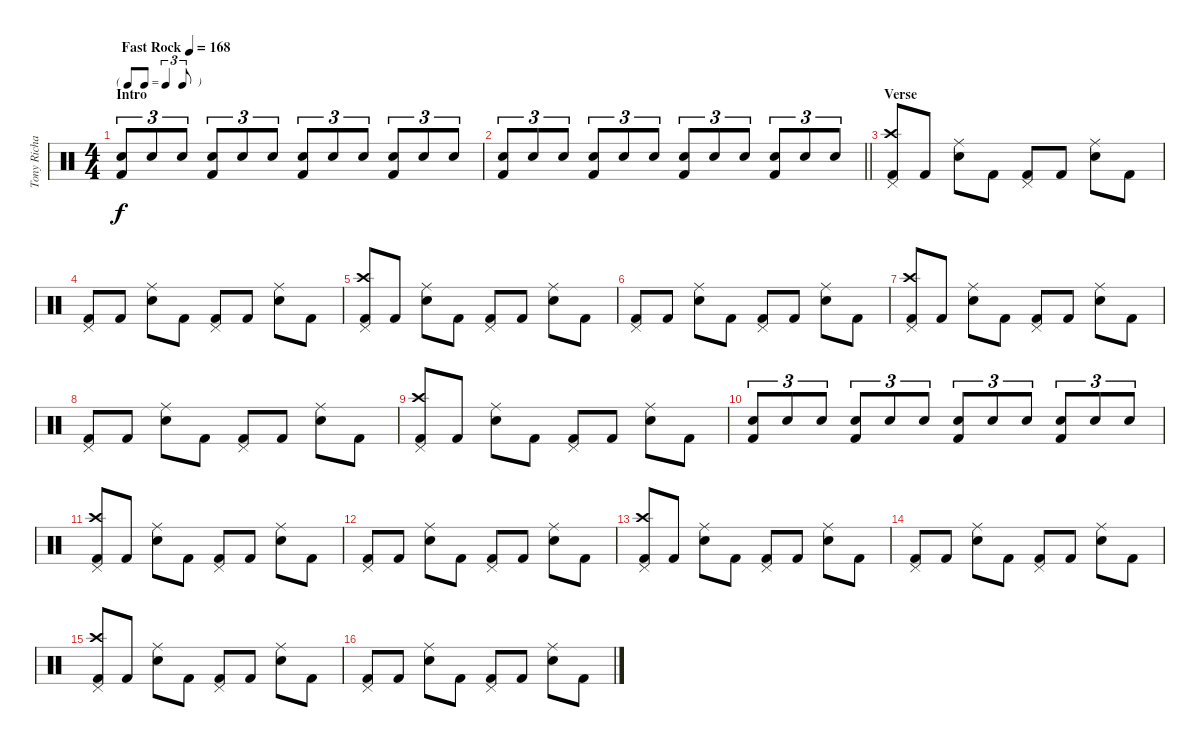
\track ("Tony Richards (drums)" "Tony Richa") {instrument percussion}
\staff {score}
\articulation defaults
\ts (4 4)
\tf triplet8th
\section ("" "Intro")
\tempo (168 "Fast Rock")
\clef neutral
\ks c
("Snare (hit) 2" "Kick (hit) 2").8{tu (3 2) dy f} "Snare (hit) 2".8{tu (3 2)} "Snare (hit) 2".8{tu (3 2)} ("Snare (hit) 2" "Kick (hit) 2").8{tu (3 2)} "Snare (hit) 2".8{tu (3 2)} "Snare (hit) 2".8{tu (3 2)} ("Snare (hit) 2" "Kick (hit) 2").8{tu (3 2)} "Snare (hit) 2".8{tu (3 2)} "Snare (hit) 2".8{tu (3 2)} ("Snare (hit) 2" "Kick (hit) 2").8{tu (3 2)} "Snare (hit) 2".8{tu (3 2)} "Snare (hit) 2".8{tu (3 2)} |
\barLineRight lightlight
("Snare (hit) 2" "Kick (hit) 2").8{tu (3 2)} "Snare (hit) 2".8{tu (3 2)} "Snare (hit) 2".8{tu (3 2)} ("Snare (hit) 2" "Kick (hit) 2").8{tu (3 2)} "Snare (hit) 2".8{tu (3 2)} "Snare (hit) 2".8{tu (3 2)} ("Snare (hit) 2" "Kick (hit) 2").8{tu (3 2)} "Snare (hit) 2".8{tu (3 2)} "Snare (hit) 2".8{tu (3 2)} ("Snare (hit) 2" "Kick (hit) 2").8{tu (3 2)} "Snare (hit) 2".8{tu (3 2)} "Snare (hit) 2".8{tu (3 2)} |
\section ("" "Verse")
("Crash high (hit)" "Pedal Hi-Hat (hit)" "Kick (hit) 2").8 "Kick (hit) 2".8 ("Ride (middle)" "Snare (hit) 2").8 "Kick (hit) 2".8 ("Pedal Hi-Hat (hit)" "Kick (hit) 2").8 "Kick (hit) 2".8 ("Ride (middle)" "Snare (hit) 2").8 "Kick (hit) 2".8 |
("Pedal Hi-Hat (hit)" "Kick (hit) 2").8 "Kick (hit) 2".8 ("Ride (middle)" "Snare (hit) 2").8 "Kick (hit) 2".8 ("Pedal Hi-Hat (hit)" "Kick (hit) 2").8 "Kick (hit) 2".8 ("Ride (middle)" "Snare (hit) 2").8 "Kick (hit) 2".8 |
("Crash high (hit)" "Pedal Hi-Hat (hit)" "Kick (hit) 2").8 "Kick (hit) 2".8 ("Ride (middle)" "Snare (hit) 2").8 "Kick (hit) 2".8 ("Pedal Hi-Hat (hit)" "Kick (hit) 2").8 "Kick (hit) 2".8 ("Ride (middle)" "Snare (hit) 2").8 "Kick (hit) 2".8 |
("Pedal Hi-Hat (hit)" "Kick (hit) 2").8 "Kick (hit) 2".8 ("Ride (middle)" "Snare (hit) 2").8 "Kick (hit) 2".8 ("Pedal Hi-Hat (hit)" "Kick (hit) 2").8 "Kick (hit) 2".8 ("Ride (middle)" "Snare (hit) 2").8 "Kick (hit) 2".8 |
("Crash high (hit)" "Pedal Hi-Hat (hit)" "Kick (hit) 2").8 "Kick (hit) 2".8 ("Ride (middle)" "Snare (hit) 2").8 "Kick (hit) 2".8 ("Pedal Hi-Hat (hit)" "Kick (hit) 2").8 "Kick (hit) 2".8 ("Ride (middle)" "Snare (hit) 2").8 "Kick (hit) 2".8 |
("Pedal Hi-Hat (hit)" "Kick (hit) 2").8 "Kick (hit) 2".8 ("Ride (middle)" "Snare (hit) 2").8 "Kick (hit) 2".8 ("Pedal Hi-Hat (hit)" "Kick (hit) 2").8 "Kick (hit) 2".8 ("Ride (middle)" "Snare (hit) 2").8 "Kick (hit) 2".8 |
("Crash high (hit)" "Pedal Hi-Hat (hit)" "Kick (hit) 2").8 "Kick (hit) 2".8 ("Ride (middle)" "Snare (hit) 2").8 "Kick (hit) 2".8 ("Pedal Hi-Hat (hit)" "Kick (hit) 2").8 "Kick (hit) 2".8 ("Ride (middle)" "Snare (hit) 2").8 "Kick (hit) 2".8 |
("Snare (hit) 2" "Kick (hit) 2").8{tu (3 2)} "Snare (hit) 2".8{tu (3 2)} "Snare (hit) 2".8{tu (3 2)} ("Snare (hit) 2" "Kick (hit) 2").8{tu (3 2)} "Snare (hit) 2".8{tu (3 2)} "Snare (hit) 2".8{tu (3 2)} ("Snare (hit) 2" "Kick (hit) 2").8{tu (3 2)} "Snare (hit) 2".8{tu (3 2)} "Snare (hit) 2".8{tu (3 2)} ("Snare (hit) 2" "Kick (hit) 2").8{tu (3 2)} "Snare (hit) 2".8{tu (3 2)} "Snare (hit) 2".8{tu (3 2)} |
("Crash high (hit)" "Pedal Hi-Hat (hit)" "Kick (hit) 2").8 "Kick (hit) 2".8 ("Ride (middle)" "Snare (hit) 2").8 "Kick (hit) 2".8 ("Pedal Hi-Hat (hit)" "Kick (hit) 2").8 "Kick (hit) 2".8 ("Ride (middle)" "Snare (hit) 2").8 "Kick (hit) 2".8 |
("Pedal Hi-Hat (hit)" "Kick (hit) 2").8 "Kick (hit) 2".8 ("Ride (middle)" "Snare (hit) 2").8 "Kick (hit) 2".8 ("Pedal Hi-Hat (hit)" "Kick (hit) 2").8 "Kick (hit) 2".8 ("Ride (middle)" "Snare (hit) 2").8 "Kick (hit) 2".8 |
("Crash high (hit)" "Pedal Hi-Hat (hit)" "Kick (hit) 2").8 "Kick (hit) 2".8 ("Ride (middle)" "Snare (hit) 2").8 "Kick (hit) 2".8 ("Pedal Hi-Hat (hit)" "Kick (hit) 2").8 "Kick (hit) 2".8 ("Ride (middle)" "Snare (hit) 2").8 "Kick (hit) 2".8 |
("Pedal Hi-Hat (hit)" "Kick (hit) 2").8 "Kick (hit) 2".8 ("Ride (middle)" "Snare (hit) 2").8 "Kick (hit) 2".8 ("Pedal Hi-Hat (hit)" "Kick (hit) 2").8 "Kick (hit) 2".8 ("Ride (middle)" "Snare (hit) 2").8 "Kick (hit) 2".8 |
("Crash high (hit)" "Pedal Hi-Hat (hit)" "Kick (hit) 2").8 "Kick (hit) 2".8 ("Ride (middle)" "Snare (hit) 2").8 "Kick (hit) 2".8 ("Pedal Hi-Hat (hit)" "Kick (hit) 2").8 "Kick (hit) 2".8 ("Ride (middle)" "Snare (hit) 2").8 "Kick (hit) 2".8 |
("Pedal Hi-Hat (hit)" "Kick (hit) 2").8 "Kick (hit) 2".8 ("Ride (middle)" "Snare (hit) 2").8 "Kick (hit) 2".8 ("Pedal Hi-Hat (hit)" "Kick (hit) 2").8 "Kick (hit) 2".8 ("Ride (middle)" "Snare (hit) 2").8 "Kick (hit) 2".8
